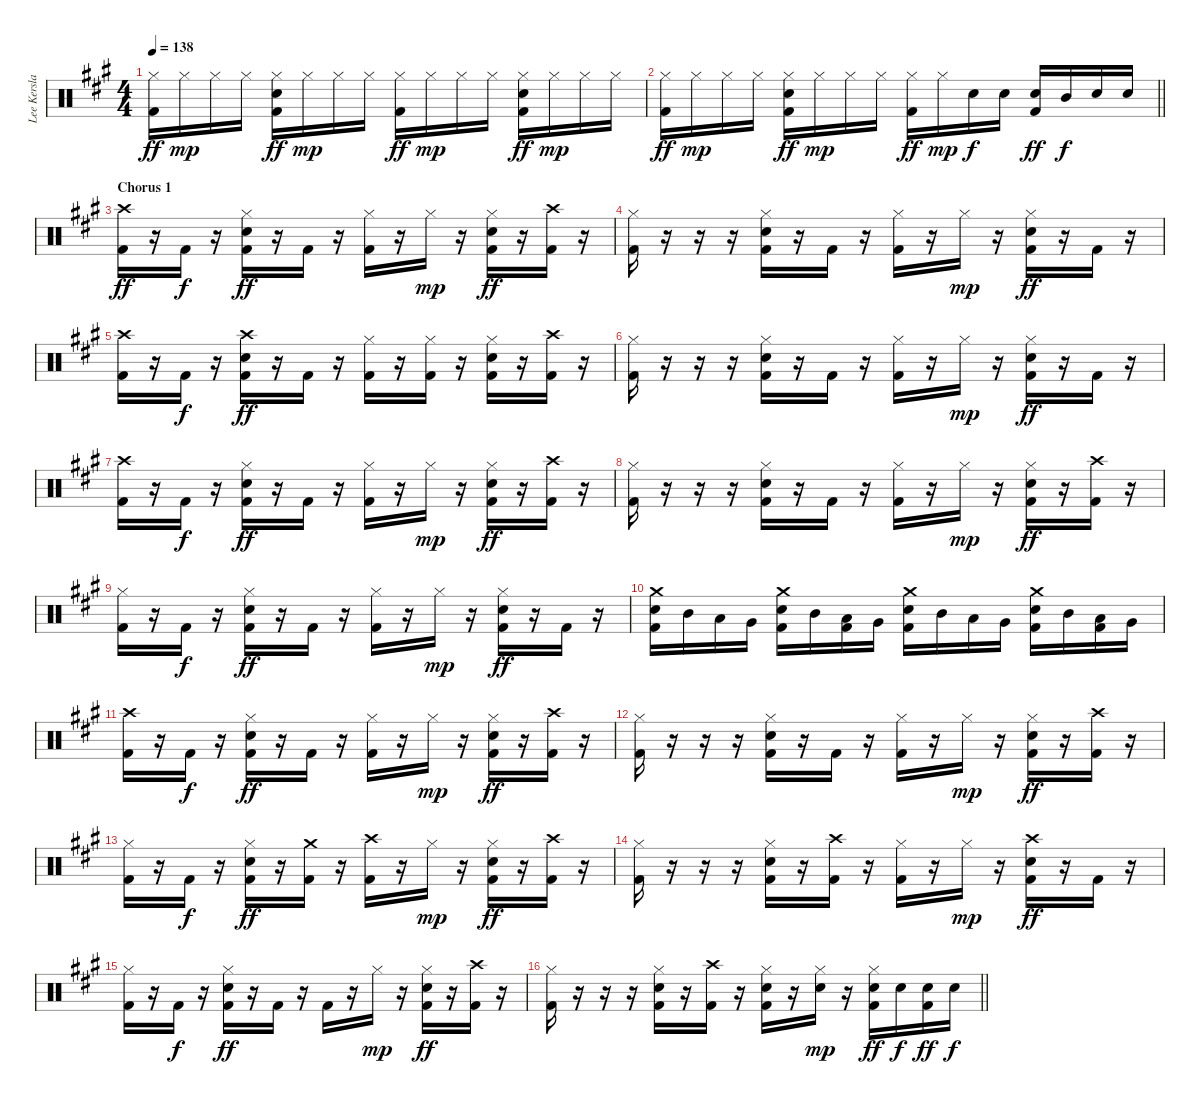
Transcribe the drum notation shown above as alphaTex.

\track ("Lee Kerslake" "Lee Kersla") {instrument percussion}
\staff {score}
\articulation defaults
\ts (4 4)
\tempo 138
\clef neutral
\ks a
("Hi-Hat (closed)" "Kick (hit) 2").16{dy ff} "Hi-Hat (closed)".16{dy mp} "Hi-Hat (closed)".16 "Hi-Hat (closed)".16 ("Hi-Hat (closed)" "Snare (hit) 2" "Kick (hit) 2").16{dy ff} "Hi-Hat (closed)".16{dy mp} "Hi-Hat (closed)".16 "Hi-Hat (closed)".16 ("Hi-Hat (closed)" "Kick (hit) 2").16{dy ff} "Hi-Hat (closed)".16{dy mp} "Hi-Hat (closed)".16 "Hi-Hat (closed)".16 ("Hi-Hat (closed)" "Snare (hit) 2" "Kick (hit) 2").16{dy ff} "Hi-Hat (closed)".16{dy mp} "Hi-Hat (closed)".16 "Hi-Hat (closed)".16 |
\barLineRight lightlight
("Hi-Hat (closed)" "Kick (hit) 2").16{dy ff} "Hi-Hat (closed)".16{dy mp} "Hi-Hat (closed)".16 "Hi-Hat (closed)".16 ("Hi-Hat (closed)" "Snare (hit) 2" "Kick (hit) 2").16{dy ff} "Hi-Hat (closed)".16{dy mp} "Hi-Hat (closed)".16 "Hi-Hat (closed)".16 ("Hi-Hat (closed)" "Kick (hit) 2").16{dy ff} "Hi-Hat (closed)".16{dy mp} "Snare (hit) 2".16{dy f} "Snare (hit) 2".16 ("Snare (hit) 2" "Kick (hit) 2").16{dy ff} "Mid Tom (hit)".16{dy f} "Snare (hit) 2".16 "Snare (hit) 2".16 |
\section ("" "Chorus 1")
("Crash high (hit)" "Kick (hit) 2").16{dy ff} r.16 "Kick (hit) 2".16{dy f} r.16 ("Hi-Hat (closed)" "Snare (hit) 2" "Kick (hit) 2").16{dy ff} r.16 "Kick (hit) 2".16 r.16 ("Hi-Hat (closed)" "Kick (hit) 2").16 r.16 "Hi-Hat (closed)".16{dy mp} r.16 ("Hi-Hat (closed)" "Snare (hit) 2" "Kick (hit) 2").16{dy ff} r.16 ("Crash high (hit)" "Kick (hit) 2").16 r.16 |
("Hi-Hat (closed)" "Kick (hit) 2").16 r.16 r.16 r.16 ("Hi-Hat (closed)" "Snare (hit) 2" "Kick (hit) 2").16 r.16 "Kick (hit) 2".16 r.16 ("Hi-Hat (closed)" "Kick (hit) 2").16 r.16 "Hi-Hat (closed)".16{dy mp} r.16 ("Hi-Hat (closed)" "Snare (hit) 2" "Kick (hit) 2").16{dy ff} r.16 "Kick (hit) 2".16 r.16 |
("Crash high (hit)" "Kick (hit) 2").16 r.16 "Kick (hit) 2".16{dy f} r.16 ("Crash high (hit)" "Snare (hit) 2" "Kick (hit) 2").16{dy ff} r.16 "Kick (hit) 2".16 r.16 ("Hi-Hat (closed)" "Kick (hit) 2").16 r.16 ("Hi-Hat (closed)" "Kick (hit) 2").16 r.16 ("Hi-Hat (closed)" "Snare (hit) 2" "Kick (hit) 2").16 r.16 ("Crash high (hit)" "Kick (hit) 2").16 r.16 |
("Hi-Hat (closed)" "Kick (hit) 2").16 r.16 r.16 r.16 ("Hi-Hat (closed)" "Snare (hit) 2" "Kick (hit) 2").16 r.16 "Kick (hit) 2".16 r.16 ("Hi-Hat (closed)" "Kick (hit) 2").16 r.16 "Hi-Hat (closed)".16{dy mp} r.16 ("Hi-Hat (closed)" "Snare (hit) 2" "Kick (hit) 2").16{dy ff} r.16 "Kick (hit) 2".16 r.16 |
("Crash high (hit)" "Kick (hit) 2").16 r.16 "Kick (hit) 2".16{dy f} r.16 ("Hi-Hat (closed)" "Snare (hit) 2" "Kick (hit) 2").16{dy ff} r.16 "Kick (hit) 2".16 r.16 ("Hi-Hat (closed)" "Kick (hit) 2").16 r.16 "Hi-Hat (closed)".16{dy mp} r.16 ("Hi-Hat (closed)" "Snare (hit) 2" "Kick (hit) 2").16{dy ff} r.16 ("Crash high (hit)" "Kick (hit) 2").16 r.16 |
("Hi-Hat (closed)" "Kick (hit) 2").16 r.16 r.16 r.16 ("Hi-Hat (closed)" "Snare (hit) 2" "Kick (hit) 2").16 r.16 "Kick (hit) 2".16 r.16 ("Hi-Hat (closed)" "Kick (hit) 2").16 r.16 "Hi-Hat (closed)".16{dy mp} r.16 ("Hi-Hat (closed)" "Snare (hit) 2" "Kick (hit) 2").16{dy ff} r.16 ("Crash high (hit)" "Kick (hit) 2").16 r.16 |
("Hi-Hat (closed)" "Kick (hit) 2").16 r.16 "Kick (hit) 2".16{dy f} r.16 ("Hi-Hat (closed)" "Snare (hit) 2" "Kick (hit) 2").16{dy ff} r.16 "Kick (hit) 2".16 r.16 ("Hi-Hat (closed)" "Kick (hit) 2").16 r.16 "Hi-Hat (closed)".16{dy mp} r.16 ("Hi-Hat (closed)" "Snare (hit) 2" "Kick (hit) 2").16{dy ff} r.16 "Kick (hit) 2".16 r.16 |
("Crash medium (hit)" "Snare (hit) 2" "Kick (hit) 2").16 "Mid Tom (hit)".16 "Low Tom (hit)".16 "Very Low Tom (hit)".16 ("Crash medium (hit)" "Snare (hit) 2" "Kick (hit) 2").16 "Mid Tom (hit)".16 ("Low Tom (hit)" "Kick (hit) 2").16 "Very Low Tom (hit)".16 ("Crash medium (hit)" "Snare (hit) 2" "Kick (hit) 2").16 "Mid Tom (hit)".16 "Low Tom (hit)".16 "Very Low Tom (hit)".16 ("Crash medium (hit)" "Snare (hit) 2" "Kick (hit) 2").16 "Mid Tom (hit)".16 ("Low Tom (hit)" "Kick (hit) 2").16 "Very Low Tom (hit)".16 |
("Crash high (hit)" "Kick (hit) 2").16 r.16 "Kick (hit) 2".16{dy f} r.16 ("Hi-Hat (closed)" "Snare (hit) 2" "Kick (hit) 2").16{dy ff} r.16 "Kick (hit) 2".16 r.16 ("Hi-Hat (closed)" "Kick (hit) 2").16 r.16 "Hi-Hat (closed)".16{dy mp} r.16 ("Hi-Hat (closed)" "Snare (hit) 2" "Kick (hit) 2").16{dy ff} r.16 ("Crash high (hit)" "Kick (hit) 2").16 r.16 |
("Hi-Hat (closed)" "Kick (hit) 2").16 r.16 r.16 r.16 ("Hi-Hat (closed)" "Snare (hit) 2" "Kick (hit) 2").16 r.16 "Kick (hit) 2".16 r.16 ("Hi-Hat (closed)" "Kick (hit) 2").16 r.16 "Hi-Hat (closed)".16{dy mp} r.16 ("Hi-Hat (closed)" "Snare (hit) 2" "Kick (hit) 2").16{dy ff} r.16 ("Crash high (hit)" "Kick (hit) 2").16 r.16 |
("Hi-Hat (closed)" "Kick (hit) 2").16 r.16 "Kick (hit) 2".16{dy f} r.16 ("Hi-Hat (closed)" "Snare (hit) 2" "Kick (hit) 2").16{dy ff} r.16 ("Crash medium (hit)" "Kick (hit) 2").16 r.16 ("Crash high (hit)" "Kick (hit) 2").16 r.16 "Hi-Hat (closed)".16{dy mp} r.16 ("Hi-Hat (closed)" "Snare (hit) 2" "Kick (hit) 2").16{dy ff} r.16 ("Crash high (hit)" "Kick (hit) 2").16 r.16 |
("Hi-Hat (closed)" "Kick (hit) 2").16 r.16 r.16 r.16 ("Hi-Hat (closed)" "Snare (hit) 2" "Kick (hit) 2").16 r.16 ("Crash high (hit)" "Kick (hit) 2").16 r.16 ("Hi-Hat (closed)" "Kick (hit) 2").16 r.16 "Hi-Hat (closed)".16{dy mp} r.16 ("Crash high (hit)" "Snare (hit) 2" "Kick (hit) 2").16{dy ff} r.16 "Kick (hit) 2".16 r.16 |
("Hi-Hat (closed)" "Kick (hit) 2").16 r.16 "Kick (hit) 2".16{dy f} r.16 ("Hi-Hat (closed)" "Snare (hit) 2" "Kick (hit) 2").16{dy ff} r.16 "Kick (hit) 2".16 r.16 "Kick (hit) 2".16 r.16 "Hi-Hat (closed)".16{dy mp} r.16 ("Hi-Hat (closed)" "Snare (hit) 2" "Kick (hit) 2").16{dy ff} r.16 ("Crash high (hit)" "Kick (hit) 2").16 r.16 |
\barLineRight lightlight
("Hi-Hat (closed)" "Kick (hit) 2").16 r.16 r.16 r.16 ("Hi-Hat (closed)" "Snare (hit) 2" "Kick (hit) 2").16 r.16 ("Crash high (hit)" "Kick (hit) 2").16 r.16 ("Hi-Hat (closed)" "Snare (hit) 2" "Kick (hit) 2").16 r.16 ("Hi-Hat (closed)" "Snare (hit) 2").16{dy mp} r.16 ("Hi-Hat (closed)" "Snare (hit) 2" "Kick (hit) 2").16{dy ff} "Snare (hit) 2".16{dy f} ("Snare (hit) 2" "Kick (hit) 2").16{dy ff} "Snare (hit) 2".16{dy f}
